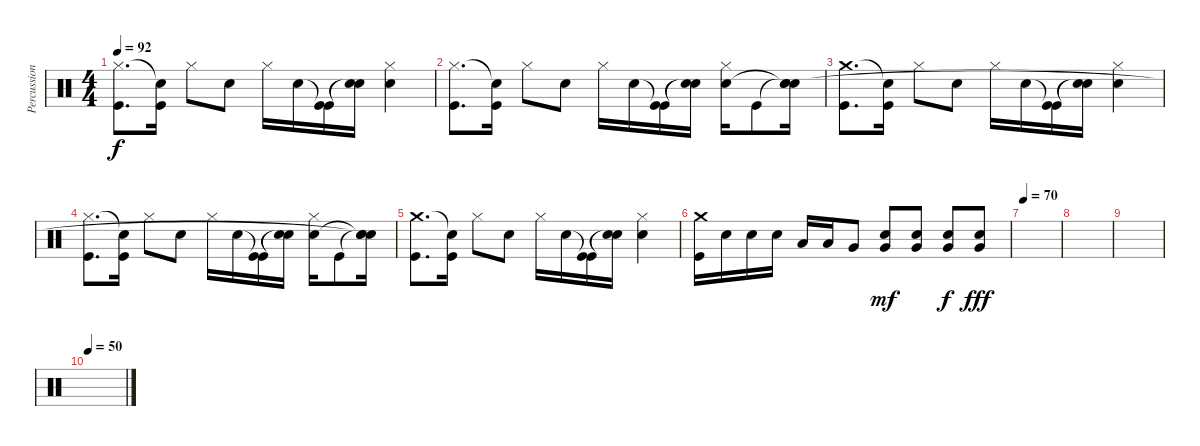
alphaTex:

\track ("Percussion" "Percussion") {instrument percussion}
\staff {score}
\articulation defaults
\ts (4 4)
\tempo 92
\clef neutral
\ks c
("Hi-Hat (closed)" "Kick (hit)").8{d dy f} ("Snare (hit)"{t} "Kick (hit)").16 "Hi-Hat (closed)".8 "Electric Snare (hit)".8 "Hi-Hat (closed)".16 "Electric Snare (hit)".16 ("Kick (hit)"{t} "Kick (hit)").16 ("Snare (hit)"{t} "Snare (hit)"{t}).16 ("Hi-Hat (closed)" "Electric Snare (hit)").4 |
("Hi-Hat (closed)" "Kick (hit)").8{d} ("Snare (hit)"{t} "Kick (hit)").16 "Hi-Hat (closed)".8 "Electric Snare (hit)".8 "Hi-Hat (closed)".16 "Electric Snare (hit)".16 ("Kick (hit)"{t} "Kick (hit)").16 ("Snare (hit)"{t} "Snare (hit)"{t}).16 ("Hi-Hat (closed)" "Electric Snare (hit)").16 "Kick (hit)".8 ("Snare (hit)"{t} "Snare (hit)"{t} "Snare (hit)"{t}).16 |
("Crash medium (hit)" "Kick (hit)").8{d} ("Snare (hit)"{t} "Kick (hit)").16 "Hi-Hat (closed)".8 "Electric Snare (hit)".8 "Hi-Hat (closed)".16 "Electric Snare (hit)".16 ("Kick (hit)"{t} "Kick (hit)").16 ("Snare (hit)"{t} "Snare (hit)"{t}).16 ("Hi-Hat (closed)" "Electric Snare (hit)").4 |
("Hi-Hat (closed)" "Kick (hit)").8{d} ("Snare (hit)"{t} "Kick (hit)").16 "Hi-Hat (closed)".8 "Electric Snare (hit)".8 "Hi-Hat (closed)".16 "Electric Snare (hit)".16 ("Kick (hit)"{t} "Kick (hit)").16 ("Snare (hit)"{t} "Snare (hit)"{t}).16 ("Hi-Hat (closed)" "Electric Snare (hit)").16 "Kick (hit)".8 ("Snare (hit)"{t} "Snare (hit)"{t} "Snare (hit)"{t}).16 |
("Crash medium (hit)" "Kick (hit)").8{d} ("Snare (hit)"{t} "Kick (hit)").16 "Hi-Hat (closed)".8 "Electric Snare (hit)".8 "Hi-Hat (closed)".16 "Electric Snare (hit)".16 ("Kick (hit)"{t} "Kick (hit)").16 ("Snare (hit)"{t} "Snare (hit)"{t}).16 ("Hi-Hat (closed)" "Electric Snare (hit)").4 |
("Crash medium (hit)" "Kick (hit)").16 "Electric Snare (hit)".16 "Electric Snare (hit)".16 "Electric Snare (hit)".16 "Low Tom (hit)".16 "Low Tom (hit)".16 "Very Low Tom (hit)".8 ("Very Low Tom (hit)" "Electric Snare (hit)").8{dy mf} ("Very Low Tom (hit)" "Electric Snare (hit)").8 ("Very Low Tom (hit)" "Electric Snare (hit)").8{dy f} ("Very Low Tom (hit)" "Electric Snare (hit)").8{dy fff} |
\tempo 70
|
|
|
\tempo 50
